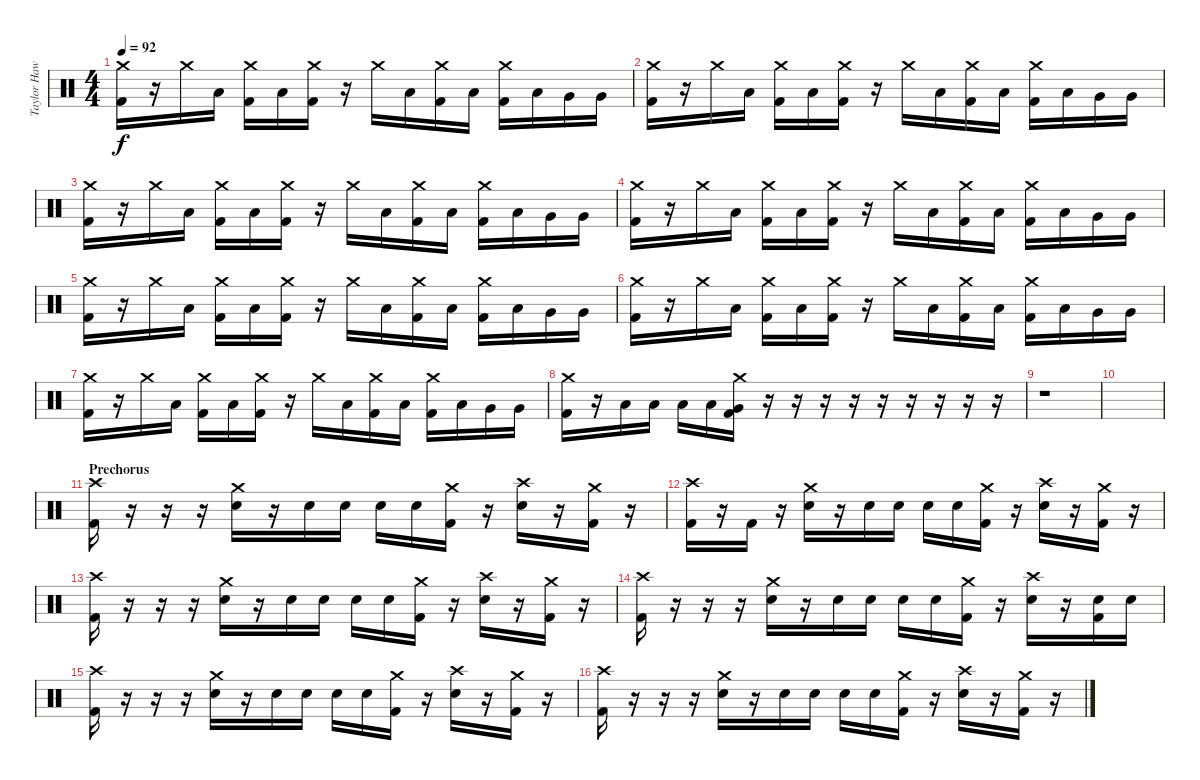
\track ("Taylor Hawkins (Drums)" "Taylor Haw") {instrument percussion}
\staff {score}
\articulation defaults
\ts (4 4)
\tempo 92
\clef neutral
\ks c
("Crash medium (hit)" "Kick (hit) 2").16{dy f} r.16 "Crash medium (hit)".16 "Low Tom (hit)".16 ("Crash medium (hit)" "Kick (hit) 2").16 "Low Tom (hit)".16 ("Crash medium (hit)" "Kick (hit) 2").16 r.16 "Crash medium (hit)".16 "Low Tom (hit)".16 ("Crash medium (hit)" "Kick (hit) 2").16 "Low Tom (hit)".16 ("Crash medium (hit)" "Kick (hit) 2").16 "Low Tom (hit)".16 "Very Low Tom (hit)".16 "Very Low Tom (hit)".16 |
("Crash medium (hit)" "Kick (hit) 2").16 r.16 "Crash medium (hit)".16 "Low Tom (hit)".16 ("Crash medium (hit)" "Kick (hit) 2").16 "Low Tom (hit)".16 ("Crash medium (hit)" "Kick (hit) 2").16 r.16 "Crash medium (hit)".16 "Low Tom (hit)".16 ("Crash medium (hit)" "Kick (hit) 2").16 "Low Tom (hit)".16 ("Crash medium (hit)" "Kick (hit) 2").16 "Low Tom (hit)".16 "Very Low Tom (hit)".16 "Very Low Tom (hit)".16 |
("Crash medium (hit)" "Kick (hit) 2").16 r.16 "Crash medium (hit)".16 "Low Tom (hit)".16 ("Crash medium (hit)" "Kick (hit) 2").16 "Low Tom (hit)".16 ("Crash medium (hit)" "Kick (hit) 2").16 r.16 "Crash medium (hit)".16 "Low Tom (hit)".16 ("Crash medium (hit)" "Kick (hit) 2").16 "Low Tom (hit)".16 ("Crash medium (hit)" "Kick (hit) 2").16 "Low Tom (hit)".16 "Very Low Tom (hit)".16 "Very Low Tom (hit)".16 |
("Crash medium (hit)" "Kick (hit) 2").16 r.16 "Crash medium (hit)".16 "Low Tom (hit)".16 ("Crash medium (hit)" "Kick (hit) 2").16 "Low Tom (hit)".16 ("Crash medium (hit)" "Kick (hit) 2").16 r.16 "Crash medium (hit)".16 "Low Tom (hit)".16 ("Crash medium (hit)" "Kick (hit) 2").16 "Low Tom (hit)".16 ("Crash medium (hit)" "Kick (hit) 2").16 "Low Tom (hit)".16 "Very Low Tom (hit)".16 "Very Low Tom (hit)".16 |
("Crash medium (hit)" "Kick (hit) 2").16 r.16 "Crash medium (hit)".16 "Low Tom (hit)".16 ("Crash medium (hit)" "Kick (hit) 2").16 "Low Tom (hit)".16 ("Crash medium (hit)" "Kick (hit) 2").16 r.16 "Crash medium (hit)".16 "Low Tom (hit)".16 ("Crash medium (hit)" "Kick (hit) 2").16 "Low Tom (hit)".16 ("Crash medium (hit)" "Kick (hit) 2").16 "Low Tom (hit)".16 "Very Low Tom (hit)".16 "Very Low Tom (hit)".16 |
("Crash medium (hit)" "Kick (hit) 2").16 r.16 "Crash medium (hit)".16 "Low Tom (hit)".16 ("Crash medium (hit)" "Kick (hit) 2").16 "Low Tom (hit)".16 ("Crash medium (hit)" "Kick (hit) 2").16 r.16 "Crash medium (hit)".16 "Low Tom (hit)".16 ("Crash medium (hit)" "Kick (hit) 2").16 "Low Tom (hit)".16 ("Crash medium (hit)" "Kick (hit) 2").16 "Low Tom (hit)".16 "Very Low Tom (hit)".16 "Very Low Tom (hit)".16 |
("Crash medium (hit)" "Kick (hit) 2").16 r.16 "Crash medium (hit)".16 "Low Tom (hit)".16 ("Crash medium (hit)" "Kick (hit) 2").16 "Low Tom (hit)".16 ("Crash medium (hit)" "Kick (hit) 2").16 r.16 "Crash medium (hit)".16 "Low Tom (hit)".16 ("Crash medium (hit)" "Kick (hit) 2").16 "Low Tom (hit)".16 ("Crash medium (hit)" "Kick (hit) 2").16 "Low Tom (hit)".16 "Very Low Tom (hit)".16 "Very Low Tom (hit)".16 |
("Crash medium (hit)" "Kick (hit) 2").16 r.16 "Low Tom (hit)".16 "Low Tom (hit)".16 "Low Tom (hit)".16 "Low Tom (hit)".16 ("Crash medium (hit)" "Very Low Tom (hit)" "Kick (hit) 2").16 r.16 r.16 r.16 r.16 r.16 r.16 r.16 r.16 r.16 |
r.1 |
|
\section ("" "Prechorus")
("Crash high (hit)" "Kick (hit) 2").16 r.16 r.16 r.16 ("Crash medium (hit)" "Electric Snare (hit)").16 r.16 "Electric Snare (hit)".16 "Electric Snare (hit)".16 "Electric Snare (hit)".16 "Electric Snare (hit)".16 ("Crash medium (hit)" "Kick (hit) 2").16 r.16 ("Crash high (hit)" "Electric Snare (hit)").16 r.16 ("Crash medium (hit)" "Kick (hit) 2").16 r.16 |
("Crash high (hit)" "Kick (hit) 2").16 r.16 "Kick (hit) 2".16 r.16 ("Crash medium (hit)" "Electric Snare (hit)").16 r.16 "Electric Snare (hit)".16 "Electric Snare (hit)".16 "Electric Snare (hit)".16 "Electric Snare (hit)".16 ("Crash medium (hit)" "Kick (hit) 2").16 r.16 ("Crash high (hit)" "Electric Snare (hit)").16 r.16 ("Crash medium (hit)" "Kick (hit) 2").16 r.16 |
("Crash high (hit)" "Kick (hit) 2").16 r.16 r.16 r.16 ("Crash medium (hit)" "Electric Snare (hit)").16 r.16 "Electric Snare (hit)".16 "Electric Snare (hit)".16 "Electric Snare (hit)".16 "Electric Snare (hit)".16 ("Crash medium (hit)" "Kick (hit) 2").16 r.16 ("Crash high (hit)" "Electric Snare (hit)").16 r.16 ("Crash medium (hit)" "Kick (hit) 2").16 r.16 |
("Crash high (hit)" "Kick (hit) 2").16 r.16 r.16 r.16 ("Crash medium (hit)" "Electric Snare (hit)").16 r.16 "Electric Snare (hit)".16 "Electric Snare (hit)".16 "Electric Snare (hit)".16 "Electric Snare (hit)".16 ("Crash medium (hit)" "Kick (hit) 2").16 r.16 ("Crash high (hit)" "Electric Snare (hit)").16 r.16 ("Electric Snare (hit)" "Kick (hit) 2").16 "Electric Snare (hit)".16 |
("Crash high (hit)" "Kick (hit) 2").16 r.16 r.16 r.16 ("Crash medium (hit)" "Electric Snare (hit)").16 r.16 "Electric Snare (hit)".16 "Electric Snare (hit)".16 "Electric Snare (hit)".16 "Electric Snare (hit)".16 ("Crash medium (hit)" "Kick (hit) 2").16 r.16 ("Crash high (hit)" "Electric Snare (hit)").16 r.16 ("Crash medium (hit)" "Kick (hit) 2").16 r.16 |
("Crash high (hit)" "Kick (hit) 2").16 r.16 r.16 r.16 ("Crash medium (hit)" "Electric Snare (hit)").16 r.16 "Electric Snare (hit)".16 "Electric Snare (hit)".16 "Electric Snare (hit)".16 "Electric Snare (hit)".16 ("Crash medium (hit)" "Kick (hit) 2").16 r.16 ("Crash high (hit)" "Electric Snare (hit)").16 r.16 ("Crash medium (hit)" "Kick (hit) 2").16 r.16
